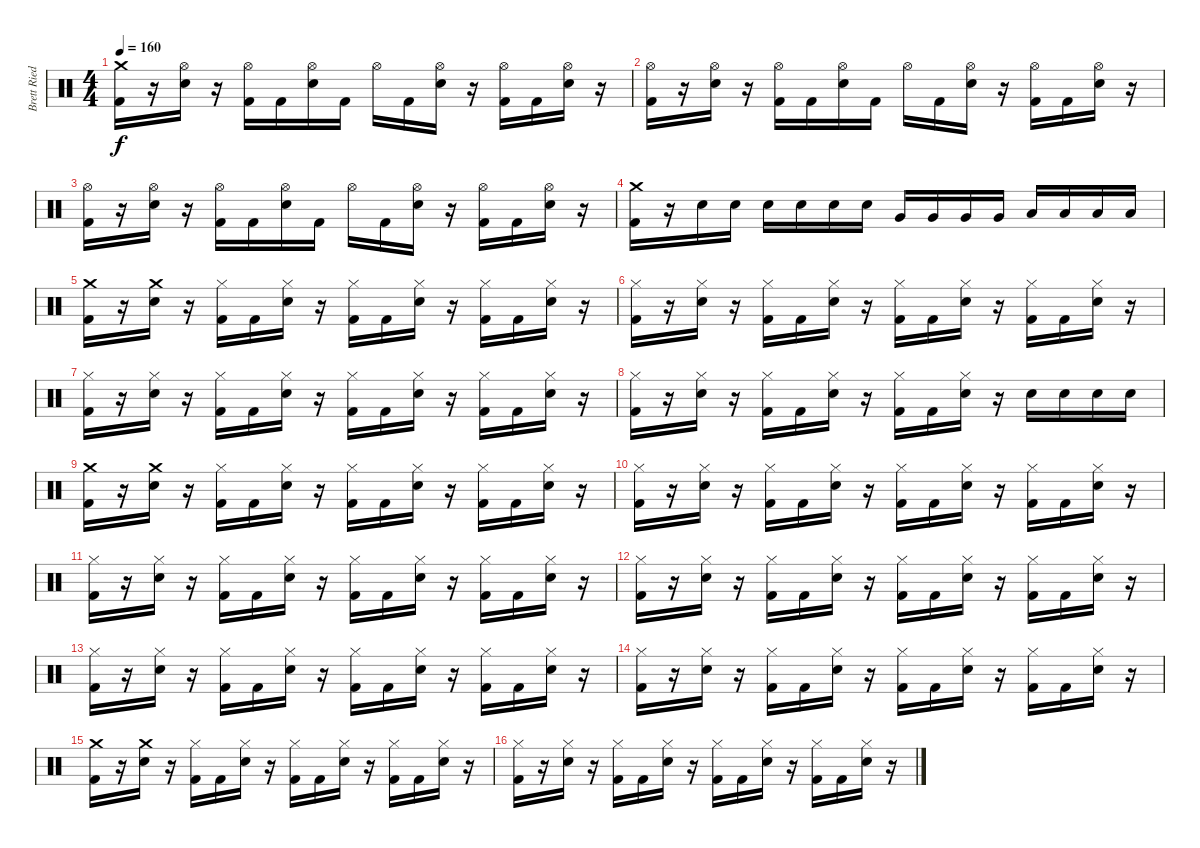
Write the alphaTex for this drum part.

\track ("Brett Ried" "Brett Ried") {instrument percussion}
\staff {score}
\articulation defaults
\ts (4 4)
\tempo 160
\clef neutral
\ks c
("Crash medium (hit)" "Kick (hit) 2").16{dy f} r.16 ("Hi-Hat (open)" "Snare (hit) 2").16 r.16 ("Hi-Hat (open)" "Kick (hit) 2").16 "Kick (hit) 2".16 ("Hi-Hat (open)" "Snare (hit) 2").16 "Kick (hit) 2".16 "Hi-Hat (open)".16 "Kick (hit) 2".16 ("Hi-Hat (open)" "Snare (hit) 2").16 r.16 ("Hi-Hat (open)" "Kick (hit) 2").16 "Kick (hit) 2".16 ("Hi-Hat (open)" "Snare (hit) 2").16 r.16 |
("Hi-Hat (open)" "Kick (hit) 2").16 r.16 ("Hi-Hat (open)" "Snare (hit) 2").16 r.16 ("Hi-Hat (open)" "Kick (hit) 2").16 "Kick (hit) 2".16 ("Hi-Hat (open)" "Snare (hit) 2").16 "Kick (hit) 2".16 "Hi-Hat (open)".16 "Kick (hit) 2".16 ("Hi-Hat (open)" "Snare (hit) 2").16 r.16 ("Hi-Hat (open)" "Kick (hit) 2").16 "Kick (hit) 2".16 ("Hi-Hat (open)" "Snare (hit) 2").16 r.16 |
("Hi-Hat (open)" "Kick (hit) 2").16 r.16 ("Hi-Hat (open)" "Snare (hit) 2").16 r.16 ("Hi-Hat (open)" "Kick (hit) 2").16 "Kick (hit) 2".16 ("Hi-Hat (open)" "Snare (hit) 2").16 "Kick (hit) 2".16 "Hi-Hat (open)".16 "Kick (hit) 2".16 ("Hi-Hat (open)" "Snare (hit) 2").16 r.16 ("Hi-Hat (open)" "Kick (hit) 2").16 "Kick (hit) 2".16 ("Hi-Hat (open)" "Snare (hit) 2").16 r.16 |
("Crash medium (hit)" "Kick (hit) 2").16 r.16 "Snare (hit) 2".16 "Snare (hit) 2".16 "Snare (hit) 2".16 "Snare (hit) 2".16 "Snare (hit) 2".16 "Snare (hit) 2".16 "Very Low Tom (hit)".16 "Very Low Tom (hit)".16 "Very Low Tom (hit)".16 "Very Low Tom (hit)".16 "Low Floor Tom (hit)".16 "Low Floor Tom (hit)".16 "Low Floor Tom (hit)".16 "Low Floor Tom (hit)".16 |
("Crash medium (hit)" "Kick (hit) 2").16 r.16 ("Crash medium (hit)" "Snare (hit) 2").16 r.16 ("Hi-Hat (closed)" "Kick (hit) 2").16 "Kick (hit) 2".16 ("Hi-Hat (closed)" "Snare (hit) 2").16 r.16 ("Hi-Hat (closed)" "Kick (hit) 2").16 "Kick (hit) 2".16 ("Hi-Hat (closed)" "Snare (hit) 2").16 r.16 ("Hi-Hat (closed)" "Kick (hit) 2").16 "Kick (hit) 2".16 ("Hi-Hat (closed)" "Snare (hit) 2").16 r.16 |
("Hi-Hat (closed)" "Kick (hit) 2").16 r.16 ("Hi-Hat (closed)" "Snare (hit) 2").16 r.16 ("Hi-Hat (closed)" "Kick (hit) 2").16 "Kick (hit) 2".16 ("Hi-Hat (closed)" "Snare (hit) 2").16 r.16 ("Hi-Hat (closed)" "Kick (hit) 2").16 "Kick (hit) 2".16 ("Hi-Hat (closed)" "Snare (hit) 2").16 r.16 ("Hi-Hat (closed)" "Kick (hit) 2").16 "Kick (hit) 2".16 ("Hi-Hat (closed)" "Snare (hit) 2").16 r.16 |
("Hi-Hat (closed)" "Kick (hit) 2").16 r.16 ("Hi-Hat (closed)" "Snare (hit) 2").16 r.16 ("Hi-Hat (closed)" "Kick (hit) 2").16 "Kick (hit) 2".16 ("Hi-Hat (closed)" "Snare (hit) 2").16 r.16 ("Hi-Hat (closed)" "Kick (hit) 2").16 "Kick (hit) 2".16 ("Hi-Hat (closed)" "Snare (hit) 2").16 r.16 ("Hi-Hat (closed)" "Kick (hit) 2").16 "Kick (hit) 2".16 ("Hi-Hat (closed)" "Snare (hit) 2").16 r.16 |
("Hi-Hat (closed)" "Kick (hit) 2").16 r.16 ("Hi-Hat (closed)" "Snare (hit) 2").16 r.16 ("Hi-Hat (closed)" "Kick (hit) 2").16 "Kick (hit) 2".16 ("Hi-Hat (closed)" "Snare (hit) 2").16 r.16 ("Hi-Hat (closed)" "Kick (hit) 2").16 "Kick (hit) 2".16 ("Hi-Hat (closed)" "Snare (hit) 2").16 r.16 "Snare (hit) 2".16 "Snare (hit) 2".16 "Snare (hit) 2".16 "Snare (hit) 2".16 |
("Crash medium (hit)" "Kick (hit) 2").16 r.16 ("Crash medium (hit)" "Snare (hit) 2").16 r.16 ("Hi-Hat (closed)" "Kick (hit) 2").16 "Kick (hit) 2".16 ("Hi-Hat (closed)" "Snare (hit) 2").16 r.16 ("Hi-Hat (closed)" "Kick (hit) 2").16 "Kick (hit) 2".16 ("Hi-Hat (closed)" "Snare (hit) 2").16 r.16 ("Hi-Hat (closed)" "Kick (hit) 2").16 "Kick (hit) 2".16 ("Hi-Hat (closed)" "Snare (hit) 2").16 r.16 |
("Hi-Hat (closed)" "Kick (hit) 2").16 r.16 ("Hi-Hat (closed)" "Snare (hit) 2").16 r.16 ("Hi-Hat (closed)" "Kick (hit) 2").16 "Kick (hit) 2".16 ("Hi-Hat (closed)" "Snare (hit) 2").16 r.16 ("Hi-Hat (closed)" "Kick (hit) 2").16 "Kick (hit) 2".16 ("Hi-Hat (closed)" "Snare (hit) 2").16 r.16 ("Hi-Hat (closed)" "Kick (hit) 2").16 "Kick (hit) 2".16 ("Hi-Hat (closed)" "Snare (hit) 2").16 r.16 |
("Hi-Hat (closed)" "Kick (hit) 2").16 r.16 ("Hi-Hat (closed)" "Snare (hit) 2").16 r.16 ("Hi-Hat (closed)" "Kick (hit) 2").16 "Kick (hit) 2".16 ("Hi-Hat (closed)" "Snare (hit) 2").16 r.16 ("Hi-Hat (closed)" "Kick (hit) 2").16 "Kick (hit) 2".16 ("Hi-Hat (closed)" "Snare (hit) 2").16 r.16 ("Hi-Hat (closed)" "Kick (hit) 2").16 "Kick (hit) 2".16 ("Hi-Hat (closed)" "Snare (hit) 2").16 r.16 |
("Hi-Hat (closed)" "Kick (hit) 2").16 r.16 ("Hi-Hat (closed)" "Snare (hit) 2").16 r.16 ("Hi-Hat (closed)" "Kick (hit) 2").16 "Kick (hit) 2".16 ("Hi-Hat (closed)" "Snare (hit) 2").16 r.16 ("Hi-Hat (closed)" "Kick (hit) 2").16 "Kick (hit) 2".16 ("Hi-Hat (closed)" "Snare (hit) 2").16 r.16 ("Hi-Hat (closed)" "Kick (hit) 2").16 "Kick (hit) 2".16 ("Hi-Hat (closed)" "Snare (hit) 2").16 r.16 |
("Hi-Hat (closed)" "Kick (hit) 2").16 r.16 ("Hi-Hat (closed)" "Snare (hit) 2").16 r.16 ("Hi-Hat (closed)" "Kick (hit) 2").16 "Kick (hit) 2".16 ("Hi-Hat (closed)" "Snare (hit) 2").16 r.16 ("Hi-Hat (closed)" "Kick (hit) 2").16 "Kick (hit) 2".16 ("Hi-Hat (closed)" "Snare (hit) 2").16 r.16 ("Hi-Hat (closed)" "Kick (hit) 2").16 "Kick (hit) 2".16 ("Hi-Hat (closed)" "Snare (hit) 2").16 r.16 |
("Hi-Hat (closed)" "Kick (hit) 2").16 r.16 ("Hi-Hat (closed)" "Snare (hit) 2").16 r.16 ("Hi-Hat (closed)" "Kick (hit) 2").16 "Kick (hit) 2".16 ("Hi-Hat (closed)" "Snare (hit) 2").16 r.16 ("Hi-Hat (closed)" "Kick (hit) 2").16 "Kick (hit) 2".16 ("Hi-Hat (closed)" "Snare (hit) 2").16 r.16 ("Hi-Hat (closed)" "Kick (hit) 2").16 "Kick (hit) 2".16 ("Hi-Hat (closed)" "Snare (hit) 2").16 r.16 |
("Crash medium (hit)" "Kick (hit) 2").16 r.16 ("Crash medium (hit)" "Snare (hit) 2").16 r.16 ("Hi-Hat (closed)" "Kick (hit) 2").16 "Kick (hit) 2".16 ("Hi-Hat (closed)" "Snare (hit) 2").16 r.16 ("Hi-Hat (closed)" "Kick (hit) 2").16 "Kick (hit) 2".16 ("Hi-Hat (closed)" "Snare (hit) 2").16 r.16 ("Hi-Hat (closed)" "Kick (hit) 2").16 "Kick (hit) 2".16 ("Hi-Hat (closed)" "Snare (hit) 2").16 r.16 |
("Hi-Hat (closed)" "Kick (hit) 2").16 r.16 ("Hi-Hat (closed)" "Snare (hit) 2").16 r.16 ("Hi-Hat (closed)" "Kick (hit) 2").16 "Kick (hit) 2".16 ("Hi-Hat (closed)" "Snare (hit) 2").16 r.16 ("Hi-Hat (closed)" "Kick (hit) 2").16 "Kick (hit) 2".16 ("Hi-Hat (closed)" "Snare (hit) 2").16 r.16 ("Hi-Hat (closed)" "Kick (hit) 2").16 "Kick (hit) 2".16 ("Hi-Hat (closed)" "Snare (hit) 2").16 r.16
